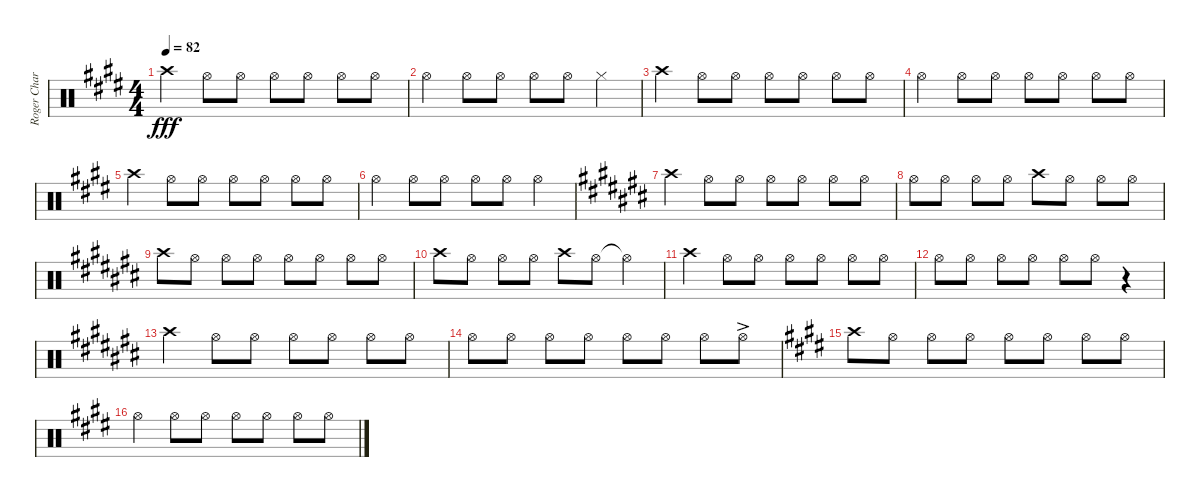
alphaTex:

\track ("Roger Charlet" "Roger Char") {instrument percussion}
\staff {score}
\articulation defaults
\ts (4 4)
\tempo 82
\clef neutral
\ks e "Crash high (hit)".4{dy fff} "Hi-Hat (open)".8 "Hi-Hat (open)".8 "Hi-Hat (open)".8 "Hi-Hat (open)".8 "Hi-Hat (open)".8 "Hi-Hat (open)".8
|
"Hi-Hat (open)".4 "Hi-Hat (open)".8 "Hi-Hat (open)".8 "Hi-Hat (open)".8 "Hi-Hat (open)".8 "Hi-Hat (closed)".4 |
"Crash high (hit)".4 "Hi-Hat (open)".8 "Hi-Hat (open)".8 "Hi-Hat (open)".8 "Hi-Hat (open)".8 "Hi-Hat (open)".8 "Hi-Hat (open)".8 |
"Hi-Hat (open)".4 "Hi-Hat (open)".8 "Hi-Hat (open)".8 "Hi-Hat (open)".8 "Hi-Hat (open)".8 "Hi-Hat (open)".8 "Hi-Hat (open)".8 |
"Crash high (hit)".4 "Hi-Hat (open)".8 "Hi-Hat (open)".8 "Hi-Hat (open)".8 "Hi-Hat (open)".8 "Hi-Hat (open)".8 "Hi-Hat (open)".8 |
"Hi-Hat (open)".4 "Hi-Hat (open)".8 "Hi-Hat (open)".8 "Hi-Hat (open)".8 "Hi-Hat (open)".8 "Hi-Hat (open)".4 |
\ks c# "Crash high (hit)".4 "Hi-Hat (open)".8 "Hi-Hat (open)".8 "Hi-Hat (open)".8 "Hi-Hat (open)".8 "Hi-Hat (open)".8 "Hi-Hat (open)".8
|
"Hi-Hat (open)".8 "Hi-Hat (open)".8 "Hi-Hat (open)".8 "Hi-Hat (open)".8 "Crash high (hit)".8 "Hi-Hat (open)".8 "Hi-Hat (open)".8 "Hi-Hat (open)".8 |
"Crash high (hit)".8 "Hi-Hat (open)".8 "Hi-Hat (open)".8 "Hi-Hat (open)".8 "Hi-Hat (open)".8 "Hi-Hat (open)".8 "Hi-Hat (open)".8 "Hi-Hat (open)".8 |
"Crash high (hit)".8 "Hi-Hat (open)".8 "Hi-Hat (open)".8 "Hi-Hat (open)".8 "Crash high (hit)".8 "Hi-Hat (open)".8 "Hi-Hat (open)"{t}.4 |
"Crash high (hit)".4 "Hi-Hat (open)".8 "Hi-Hat (open)".8 "Hi-Hat (open)".8 "Hi-Hat (open)".8 "Hi-Hat (open)".8 "Hi-Hat (open)".8 |
"Hi-Hat (open)".8 "Hi-Hat (open)".8 "Hi-Hat (open)".8 "Hi-Hat (open)".8 "Hi-Hat (open)".8 "Hi-Hat (open)".8 r.4 |
"Crash high (hit)".4 "Hi-Hat (open)".8 "Hi-Hat (open)".8 "Hi-Hat (open)".8 "Hi-Hat (open)".8 "Hi-Hat (open)".8 "Hi-Hat (open)".8 |
"Hi-Hat (open)".8 "Hi-Hat (open)".8 "Hi-Hat (open)".8 "Hi-Hat (open)".8 "Hi-Hat (open)".8 "Hi-Hat (open)".8 "Hi-Hat (open)".8 "Hi-Hat (open)"{ac}.8 |
\ks e "Crash high (hit)".8 "Hi-Hat (open)".8 "Hi-Hat (open)".8 "Hi-Hat (open)".8 "Hi-Hat (open)".8 "Hi-Hat (open)".8 "Hi-Hat (open)".8 "Hi-Hat (open)".8
|
"Hi-Hat (open)".4 "Hi-Hat (open)".8 "Hi-Hat (open)".8 "Hi-Hat (open)".8 "Hi-Hat (open)".8 "Hi-Hat (open)".8 "Hi-Hat (open)".8
